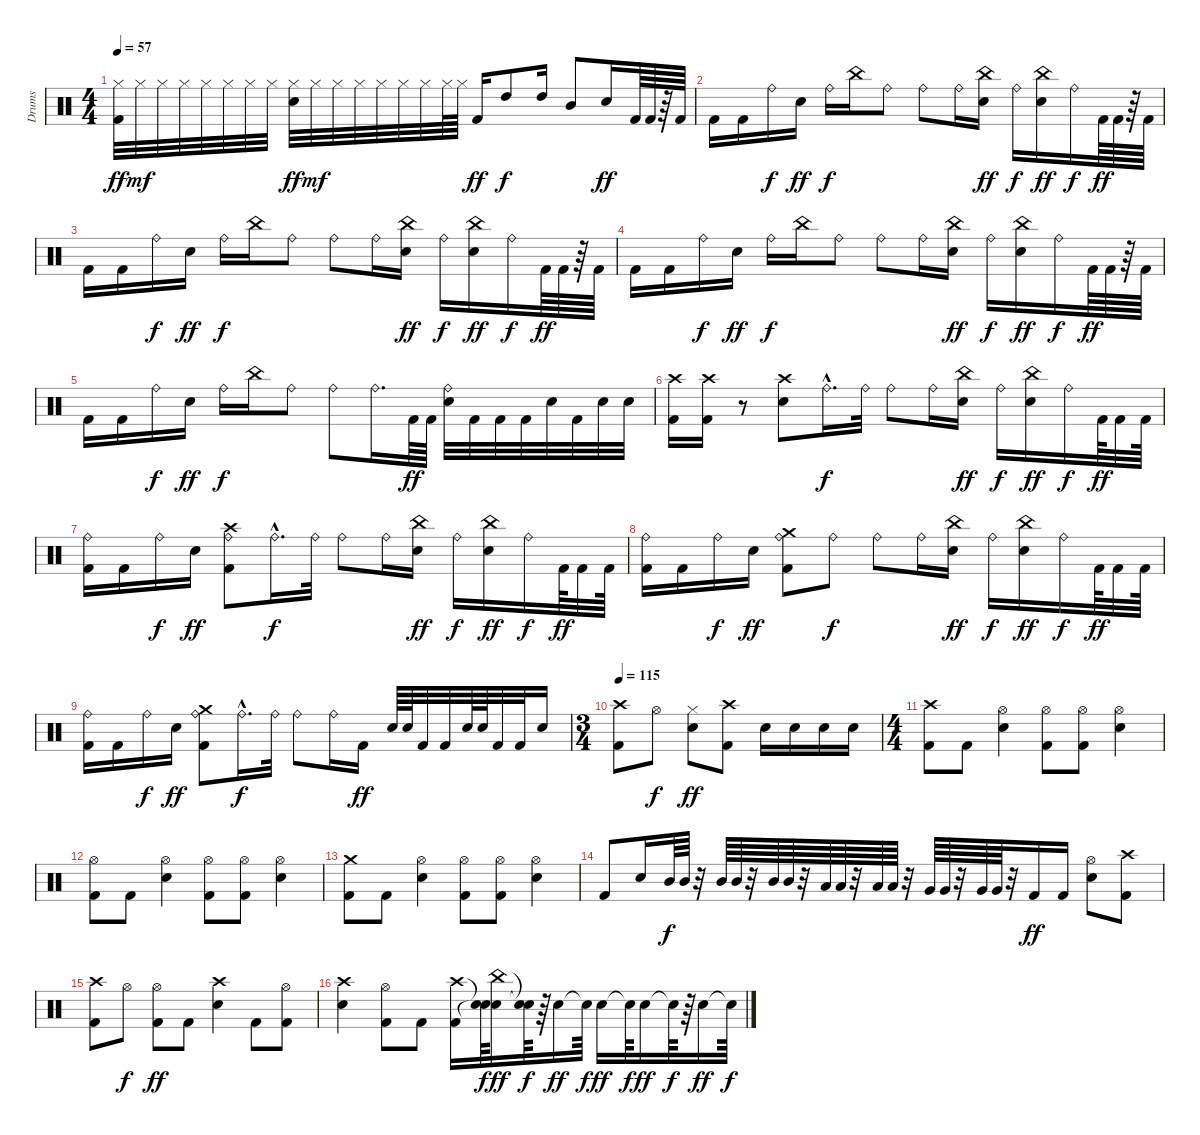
\track ("Drums" "Drums") {instrument percussion}
\staff {score}
\articulation defaults
\ts (4 4)
\tempo 57
\clef neutral
\ks c
("Hi-Hat (closed)" "Kick (hit) 2").32{dy ff} "Hi-Hat (closed)".32{dy mf} "Hi-Hat (closed)".32 "Hi-Hat (closed)".32 "Hi-Hat (closed)".32 "Hi-Hat (closed)".32 "Hi-Hat (closed)".32 "Hi-Hat (closed)".32 ("Hi-Hat (closed)" "Electric Snare (hit)").32{dy ff} "Hi-Hat (closed)".32{dy mf} "Hi-Hat (closed)".32 "Hi-Hat (closed)".32 "Hi-Hat (closed)".32 "Hi-Hat (closed)".32 "Hi-Hat (closed)".32 "Hi-Hat (closed)".64 "Hi-Hat (closed)".64 "Kick (hit) 2".16{dy ff} "High Tom (hit)".8{dy f} "High Tom (hit)".16 "Mid Tom (hit)".8 "Electric Snare (hit)".16{dy ff} "Kick (hit) 2".64 "Kick (hit) 2".64 r.64 "Kick (hit) 2".64 |
"Kick (hit) 2".16 "Kick (hit) 2".16 "Ride (bell)".16{dy f} "Electric Snare (hit)".16{dy ff} "Ride (bell)".16{dy f} "China (hit)".16 "Ride (bell)".8 "Ride (bell)".8 "Ride (bell)".16 ("China (hit)" "Electric Snare (hit)").16{dy ff} "Ride (bell)".16{dy f} ("China (hit)" "Electric Snare (hit)").16{dy ff} "Ride (bell)".16{dy f} "Kick (hit) 2".64{dy ff} "Kick (hit) 2".64 r.64 "Kick (hit) 2".64 |
"Kick (hit) 2".16 "Kick (hit) 2".16 "Ride (bell)".16{dy f} "Electric Snare (hit)".16{dy ff} "Ride (bell)".16{dy f} "China (hit)".16 "Ride (bell)".8 "Ride (bell)".8 "Ride (bell)".16 ("China (hit)" "Electric Snare (hit)").16{dy ff} "Ride (bell)".16{dy f} ("China (hit)" "Electric Snare (hit)").16{dy ff} "Ride (bell)".16{dy f} "Kick (hit) 2".64{dy ff} "Kick (hit) 2".64 r.64 "Kick (hit) 2".64 |
"Kick (hit) 2".16 "Kick (hit) 2".16 "Ride (bell)".16{dy f} "Electric Snare (hit)".16{dy ff} "Ride (bell)".16{dy f} "China (hit)".16 "Ride (bell)".8 "Ride (bell)".8 "Ride (bell)".16 ("China (hit)" "Electric Snare (hit)").16{dy ff} "Ride (bell)".16{dy f} ("China (hit)" "Electric Snare (hit)").16{dy ff} "Ride (bell)".16{dy f} "Kick (hit) 2".64{dy ff} "Kick (hit) 2".64 r.64 "Kick (hit) 2".64 |
"Kick (hit) 2".16 "Kick (hit) 2".16 "Ride (bell)".16{dy f} "Electric Snare (hit)".16{dy ff} "Ride (bell)".16{dy f} "China (hit)".16 "Ride (bell)".8 "Ride (bell)".8 "Ride (bell)".16{d} "Kick (hit) 2".64{dy ff} "Kick (hit) 2".64 ("Ride (bell)" "Electric Snare (hit)").32 "Kick (hit) 2".32 "Kick (hit) 2".32 "Kick (hit) 2".32 "Electric Snare (hit)".32 "Kick (hit) 2".32 "Electric Snare (hit)".32 "Electric Snare (hit)".32 |
("Crash high (hit)" "Kick (hit) 2").16 ("Crash high (hit)" "Kick (hit) 2").16 r.8 ("Crash high (hit)" "Electric Snare (hit)").8{volume 11} "Ride (bell)"{hac}.16{d dy f} "Ride (bell)".32 "Ride (bell)".8 "Ride (bell)".16 ("China (hit)" "Electric Snare (hit)").16{dy ff} "Ride (bell)".16{dy f} ("China (hit)" "Electric Snare (hit)").16{dy ff} "Ride (bell)".16{dy f} "Kick (hit) 2".64{dy ff} "Kick (hit) 2".32 "Kick (hit) 2".64 |
("Ride (bell)" "Kick (hit) 2").16 "Kick (hit) 2".16 "Ride (bell)".16{dy f} "Electric Snare (hit)".16{dy ff} ("Ride (bell)" "Crash high (hit)" "Kick (hit) 2").8 "Ride (bell)"{hac}.16{d dy f} "Ride (bell)".32 "Ride (bell)".8 "Ride (bell)".16 ("China (hit)" "Electric Snare (hit)").16{dy ff} "Ride (bell)".16{dy f} ("China (hit)" "Electric Snare (hit)").16{dy ff} "Ride (bell)".16{dy f} "Kick (hit) 2".64{dy ff} "Kick (hit) 2".32 "Kick (hit) 2".64 |
("Ride (bell)" "Kick (hit) 2").16 "Kick (hit) 2".16 "Ride (bell)".16{dy f} "Electric Snare (hit)".16{dy ff} ("Ride (bell)" "Crash medium (hit)" "Kick (hit) 2").8 "Ride (bell)".8{dy f} "Ride (bell)".8 "Ride (bell)".16 ("China (hit)" "Electric Snare (hit)").16{dy ff} "Ride (bell)".16{dy f} ("China (hit)" "Electric Snare (hit)").16{dy ff} "Ride (bell)".16{dy f} "Kick (hit) 2".64{dy ff} "Kick (hit) 2".32 "Kick (hit) 2".64 |
("Ride (bell)" "Kick (hit) 2").16 "Kick (hit) 2".16 "Ride (bell)".16{dy f} "Electric Snare (hit)".16{dy ff} ("Ride (bell)" "Crash medium (hit)" "Kick (hit) 2").8 "Ride (bell)"{hac}.16{d dy f} "Ride (bell)".32 "Ride (bell)".8 "Ride (bell)".16 "Kick (hit) 2".16{dy ff} "Electric Snare (hit)".64 "Electric Snare (hit)".64 "Kick (hit) 2".32 "Kick (hit) 2".32 "Electric Snare (hit)".64 "Electric Snare (hit)".64 "Kick (hit) 2".32 "Kick (hit) 2".32 "Electric Snare (hit)".16 |
\ts (3 4)
\tempo 115
("Crash high (hit)" "Kick (hit) 2").8 "Hi-Hat (open)".8{dy f} ("Hi-Hat (closed)" "Electric Snare (hit)").8{dy ff} ("Crash high (hit)" "Kick (hit) 2").8 "Electric Snare (hit)".16 "Electric Snare (hit)".16 "Electric Snare (hit)".16 "Electric Snare (hit)".16 |
\ts (4 4)
("Crash high (hit)" "Kick (hit) 2").8 "Kick (hit) 2".8 ("Hi-Hat (open)" "Electric Snare (hit)").4 ("Hi-Hat (open)" "Kick (hit) 2").8 ("Hi-Hat (open)" "Kick (hit) 2").8 ("Hi-Hat (open)" "Electric Snare (hit)").4 |
("Hi-Hat (open)" "Kick (hit) 2").8 "Kick (hit) 2".8 ("Hi-Hat (open)" "Electric Snare (hit)").4 ("Hi-Hat (open)" "Kick (hit) 2").8 ("Hi-Hat (open)" "Kick (hit) 2").8 ("Hi-Hat (open)" "Electric Snare (hit)").4 |
("Crash medium (hit)" "Kick (hit) 2").8 "Kick (hit) 2".8 ("Hi-Hat (open)" "Electric Snare (hit)").4 ("Hi-Hat (open)" "Kick (hit) 2").8 ("Hi-Hat (open)" "Kick (hit) 2").8 ("Hi-Hat (open)" "Electric Snare (hit)").4 |
"Kick (hit) 2".8 "Electric Snare (hit)".16 "Mid Tom (hit)".64{dy f} "Mid Tom (hit)".64 r.32 "Mid Tom (hit)".64 "Mid Tom (hit)".64 r.32 "Mid Tom (hit)".64 "Mid Tom (hit)".64 r.32 "Low Tom (hit)".64 "Low Tom (hit)".64 r.32 "Low Tom (hit)".64 "Low Tom (hit)".64 r.32 "Very Low Tom (hit)".64 "Very Low Tom (hit)".64 r.32 "Very Low Tom (hit)".64 "Very Low Tom (hit)".64 r.32 "Kick (hit) 2".16{dy ff} "Kick (hit) 2".16 ("Hi-Hat (open)" "Electric Snare (hit)").8 ("Crash high (hit)" "Kick (hit) 2").8 |
("Crash high (hit)" "Kick (hit) 2").8 "Hi-Hat (open)".8{dy f} ("Hi-Hat (open)" "Kick (hit) 2").8{dy ff} "Kick (hit) 2".8 ("Crash high (hit)" "Electric Snare (hit)").4 "Kick (hit) 2".8 ("Hi-Hat (open)" "Kick (hit) 2").8 |
("Crash high (hit)" "Electric Snare (hit)").4 ("Hi-Hat (open)" "Kick (hit) 2").8 "Kick (hit) 2".8 ("Crash high (hit)" "Kick (hit) 2").16 ("Snare (hit)"{t} "Snare (hit)"{t}).64{dy f} ("China (hit)" "Electric Snare (hit)").16{dy ff} ("Snare (hit)"{t} "Snare (hit)"{t}).64{dy f} r.64 "Electric Snare (hit)".16{dy ff} "Snare (hit)"{t}.64{dy f} "Electric Snare (hit)".16{dy ff} "Snare (hit)"{t}.64{dy f} "Electric Snare (hit)".16{dy ff} "Snare (hit)"{t}.64{dy f} r.64 "Electric Snare (hit)".16{dy ff} "Snare (hit)"{t}.64{dy f}
